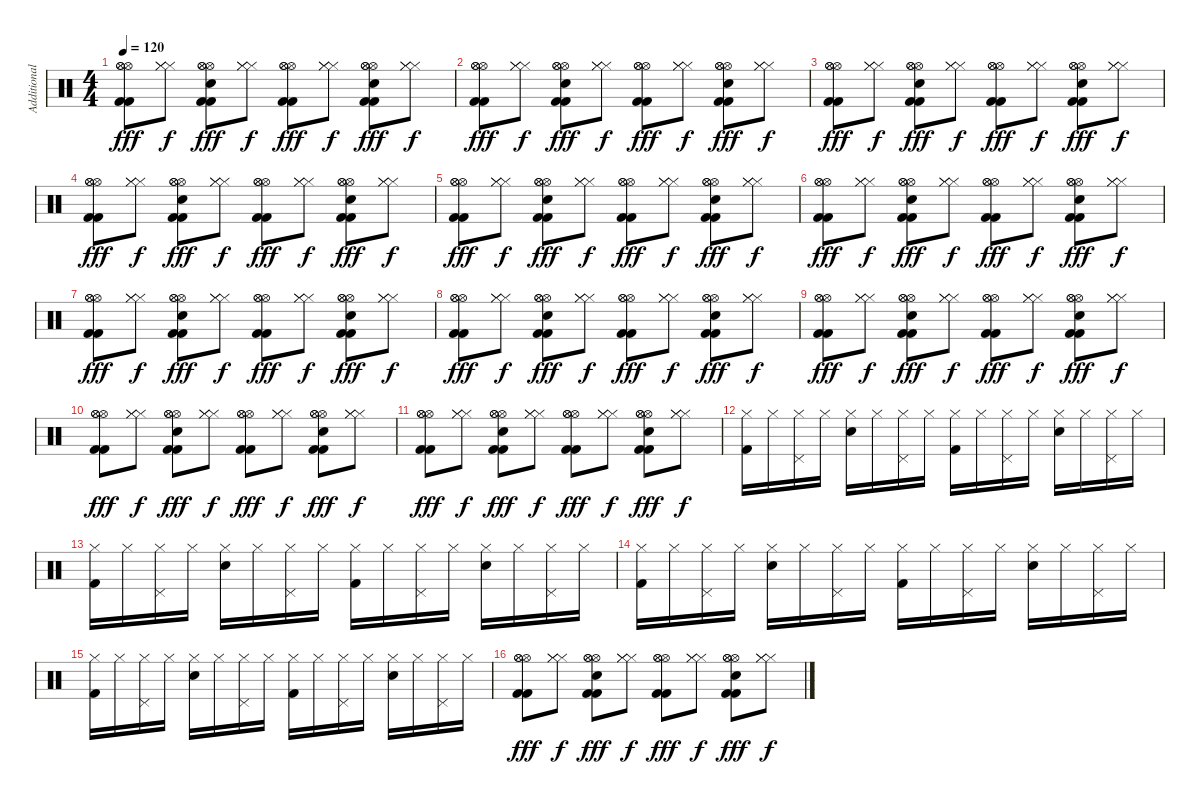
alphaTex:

\track ("Additional Rythm" "Additional") {instrument percussion}
\staff {score}
\articulation defaults
\ts (4 4)
\tempo 120
\clef neutral
\ks c
("Hi-Hat (open)" "Hi-Hat (open)" "Hi-Hat (open)" "Kick (hit) 2" "Kick (hit) 2").8{dy fff} ("Hi-Hat (closed)" "Hi-Hat (closed)" "Hi-Hat (closed)").8{dy f} ("Hi-Hat (open)" "Hi-Hat (open)" "Hi-Hat (open)" "Kick (hit) 2" "Kick (hit) 2" "Snare (hit) 2").8{dy fff} ("Hi-Hat (closed)" "Hi-Hat (closed)" "Hi-Hat (closed)").8{dy f} ("Hi-Hat (open)" "Hi-Hat (open)" "Hi-Hat (open)" "Kick (hit) 2" "Kick (hit) 2").8{dy fff} ("Hi-Hat (closed)" "Hi-Hat (closed)" "Hi-Hat (closed)").8{dy f} ("Hi-Hat (open)" "Hi-Hat (open)" "Hi-Hat (open)" "Kick (hit) 2" "Kick (hit) 2" "Snare (hit) 2").8{dy fff} ("Hi-Hat (closed)" "Hi-Hat (closed)" "Hi-Hat (closed)").8{dy f} |
("Hi-Hat (open)" "Hi-Hat (open)" "Hi-Hat (open)" "Kick (hit) 2" "Kick (hit) 2").8{dy fff} ("Hi-Hat (closed)" "Hi-Hat (closed)" "Hi-Hat (closed)").8{dy f} ("Hi-Hat (open)" "Hi-Hat (open)" "Hi-Hat (open)" "Kick (hit) 2" "Kick (hit) 2" "Snare (hit) 2").8{dy fff} ("Hi-Hat (closed)" "Hi-Hat (closed)" "Hi-Hat (closed)").8{dy f} ("Hi-Hat (open)" "Hi-Hat (open)" "Hi-Hat (open)" "Kick (hit) 2" "Kick (hit) 2").8{dy fff} ("Hi-Hat (closed)" "Hi-Hat (closed)" "Hi-Hat (closed)").8{dy f} ("Hi-Hat (open)" "Hi-Hat (open)" "Hi-Hat (open)" "Kick (hit) 2" "Kick (hit) 2" "Snare (hit) 2").8{dy fff} ("Hi-Hat (closed)" "Hi-Hat (closed)" "Hi-Hat (closed)").8{dy f} |
("Hi-Hat (open)" "Hi-Hat (open)" "Hi-Hat (open)" "Kick (hit) 2" "Kick (hit) 2").8{dy fff} ("Hi-Hat (closed)" "Hi-Hat (closed)" "Hi-Hat (closed)").8{dy f} ("Hi-Hat (open)" "Hi-Hat (open)" "Hi-Hat (open)" "Kick (hit) 2" "Kick (hit) 2" "Snare (hit) 2").8{dy fff} ("Hi-Hat (closed)" "Hi-Hat (closed)" "Hi-Hat (closed)").8{dy f} ("Hi-Hat (open)" "Hi-Hat (open)" "Hi-Hat (open)" "Kick (hit) 2" "Kick (hit) 2").8{dy fff} ("Hi-Hat (closed)" "Hi-Hat (closed)" "Hi-Hat (closed)").8{dy f} ("Hi-Hat (open)" "Hi-Hat (open)" "Hi-Hat (open)" "Kick (hit) 2" "Kick (hit) 2" "Snare (hit) 2").8{dy fff} ("Hi-Hat (closed)" "Hi-Hat (closed)" "Hi-Hat (closed)").8{dy f} |
("Hi-Hat (open)" "Hi-Hat (open)" "Hi-Hat (open)" "Kick (hit) 2" "Kick (hit) 2").8{dy fff} ("Hi-Hat (closed)" "Hi-Hat (closed)" "Hi-Hat (closed)").8{dy f} ("Hi-Hat (open)" "Hi-Hat (open)" "Hi-Hat (open)" "Kick (hit) 2" "Kick (hit) 2" "Snare (hit) 2").8{dy fff} ("Hi-Hat (closed)" "Hi-Hat (closed)" "Hi-Hat (closed)").8{dy f} ("Hi-Hat (open)" "Hi-Hat (open)" "Hi-Hat (open)" "Kick (hit) 2" "Kick (hit) 2").8{dy fff} ("Hi-Hat (closed)" "Hi-Hat (closed)" "Hi-Hat (closed)").8{dy f} ("Hi-Hat (open)" "Hi-Hat (open)" "Hi-Hat (open)" "Kick (hit) 2" "Kick (hit) 2" "Snare (hit) 2").8{dy fff} ("Hi-Hat (closed)" "Hi-Hat (closed)" "Hi-Hat (closed)").8{dy f} |
("Hi-Hat (open)" "Hi-Hat (open)" "Hi-Hat (open)" "Kick (hit) 2" "Kick (hit) 2").8{dy fff} ("Hi-Hat (closed)" "Hi-Hat (closed)" "Hi-Hat (closed)").8{dy f} ("Hi-Hat (open)" "Hi-Hat (open)" "Hi-Hat (open)" "Kick (hit) 2" "Kick (hit) 2" "Snare (hit) 2").8{dy fff} ("Hi-Hat (closed)" "Hi-Hat (closed)" "Hi-Hat (closed)").8{dy f} ("Hi-Hat (open)" "Hi-Hat (open)" "Hi-Hat (open)" "Kick (hit) 2" "Kick (hit) 2").8{dy fff} ("Hi-Hat (closed)" "Hi-Hat (closed)" "Hi-Hat (closed)").8{dy f} ("Hi-Hat (open)" "Hi-Hat (open)" "Hi-Hat (open)" "Kick (hit) 2" "Kick (hit) 2" "Snare (hit) 2").8{dy fff} ("Hi-Hat (closed)" "Hi-Hat (closed)" "Hi-Hat (closed)").8{dy f} |
("Hi-Hat (open)" "Hi-Hat (open)" "Hi-Hat (open)" "Kick (hit) 2" "Kick (hit) 2").8{dy fff} ("Hi-Hat (closed)" "Hi-Hat (closed)" "Hi-Hat (closed)").8{dy f} ("Hi-Hat (open)" "Hi-Hat (open)" "Hi-Hat (open)" "Kick (hit) 2" "Kick (hit) 2" "Snare (hit) 2").8{dy fff} ("Hi-Hat (closed)" "Hi-Hat (closed)" "Hi-Hat (closed)").8{dy f} ("Hi-Hat (open)" "Hi-Hat (open)" "Hi-Hat (open)" "Kick (hit) 2" "Kick (hit) 2").8{dy fff} ("Hi-Hat (closed)" "Hi-Hat (closed)" "Hi-Hat (closed)").8{dy f} ("Hi-Hat (open)" "Hi-Hat (open)" "Hi-Hat (open)" "Kick (hit) 2" "Kick (hit) 2" "Snare (hit) 2").8{dy fff} ("Hi-Hat (closed)" "Hi-Hat (closed)" "Hi-Hat (closed)").8{dy f} |
("Hi-Hat (open)" "Hi-Hat (open)" "Hi-Hat (open)" "Kick (hit) 2" "Kick (hit) 2").8{dy fff} ("Hi-Hat (closed)" "Hi-Hat (closed)" "Hi-Hat (closed)").8{dy f} ("Hi-Hat (open)" "Hi-Hat (open)" "Hi-Hat (open)" "Kick (hit) 2" "Kick (hit) 2" "Snare (hit) 2").8{dy fff} ("Hi-Hat (closed)" "Hi-Hat (closed)" "Hi-Hat (closed)").8{dy f} ("Hi-Hat (open)" "Hi-Hat (open)" "Hi-Hat (open)" "Kick (hit) 2" "Kick (hit) 2").8{dy fff} ("Hi-Hat (closed)" "Hi-Hat (closed)" "Hi-Hat (closed)").8{dy f} ("Hi-Hat (open)" "Hi-Hat (open)" "Hi-Hat (open)" "Kick (hit) 2" "Kick (hit) 2" "Snare (hit) 2").8{dy fff} ("Hi-Hat (closed)" "Hi-Hat (closed)" "Hi-Hat (closed)").8{dy f} |
("Hi-Hat (open)" "Hi-Hat (open)" "Hi-Hat (open)" "Kick (hit) 2" "Kick (hit) 2").8{dy fff} ("Hi-Hat (closed)" "Hi-Hat (closed)" "Hi-Hat (closed)").8{dy f} ("Hi-Hat (open)" "Hi-Hat (open)" "Hi-Hat (open)" "Kick (hit) 2" "Kick (hit) 2" "Snare (hit) 2").8{dy fff} ("Hi-Hat (closed)" "Hi-Hat (closed)" "Hi-Hat (closed)").8{dy f} ("Hi-Hat (open)" "Hi-Hat (open)" "Hi-Hat (open)" "Kick (hit) 2" "Kick (hit) 2").8{dy fff} ("Hi-Hat (closed)" "Hi-Hat (closed)" "Hi-Hat (closed)").8{dy f} ("Hi-Hat (open)" "Hi-Hat (open)" "Hi-Hat (open)" "Kick (hit) 2" "Kick (hit) 2" "Snare (hit) 2").8{dy fff} ("Hi-Hat (closed)" "Hi-Hat (closed)" "Hi-Hat (closed)").8{dy f} |
("Hi-Hat (open)" "Hi-Hat (open)" "Hi-Hat (open)" "Kick (hit) 2" "Kick (hit) 2").8{dy fff} ("Hi-Hat (closed)" "Hi-Hat (closed)" "Hi-Hat (closed)").8{dy f} ("Hi-Hat (open)" "Hi-Hat (open)" "Hi-Hat (open)" "Kick (hit) 2" "Kick (hit) 2" "Snare (hit) 2").8{dy fff} ("Hi-Hat (closed)" "Hi-Hat (closed)" "Hi-Hat (closed)").8{dy f} ("Hi-Hat (open)" "Hi-Hat (open)" "Hi-Hat (open)" "Kick (hit) 2" "Kick (hit) 2").8{dy fff} ("Hi-Hat (closed)" "Hi-Hat (closed)" "Hi-Hat (closed)").8{dy f} ("Hi-Hat (open)" "Hi-Hat (open)" "Hi-Hat (open)" "Kick (hit) 2" "Kick (hit) 2" "Snare (hit) 2").8{dy fff} ("Hi-Hat (closed)" "Hi-Hat (closed)" "Hi-Hat (closed)").8{dy f} |
("Hi-Hat (open)" "Hi-Hat (open)" "Hi-Hat (open)" "Kick (hit) 2" "Kick (hit) 2").8{dy fff} ("Hi-Hat (closed)" "Hi-Hat (closed)" "Hi-Hat (closed)").8{dy f} ("Hi-Hat (open)" "Hi-Hat (open)" "Hi-Hat (open)" "Kick (hit) 2" "Kick (hit) 2" "Snare (hit) 2").8{dy fff} ("Hi-Hat (closed)" "Hi-Hat (closed)" "Hi-Hat (closed)").8{dy f} ("Hi-Hat (open)" "Hi-Hat (open)" "Hi-Hat (open)" "Kick (hit) 2" "Kick (hit) 2").8{dy fff} ("Hi-Hat (closed)" "Hi-Hat (closed)" "Hi-Hat (closed)").8{dy f} ("Hi-Hat (open)" "Hi-Hat (open)" "Hi-Hat (open)" "Kick (hit) 2" "Kick (hit) 2" "Snare (hit) 2").8{dy fff} ("Hi-Hat (closed)" "Hi-Hat (closed)" "Hi-Hat (closed)").8{dy f} |
("Hi-Hat (open)" "Hi-Hat (open)" "Hi-Hat (open)" "Kick (hit) 2" "Kick (hit) 2").8{dy fff} ("Hi-Hat (closed)" "Hi-Hat (closed)" "Hi-Hat (closed)").8{dy f} ("Hi-Hat (open)" "Hi-Hat (open)" "Hi-Hat (open)" "Kick (hit) 2" "Kick (hit) 2" "Snare (hit) 2").8{dy fff} ("Hi-Hat (closed)" "Hi-Hat (closed)" "Hi-Hat (closed)").8{dy f} ("Hi-Hat (open)" "Hi-Hat (open)" "Hi-Hat (open)" "Kick (hit) 2" "Kick (hit) 2").8{dy fff} ("Hi-Hat (closed)" "Hi-Hat (closed)" "Hi-Hat (closed)").8{dy f} ("Hi-Hat (open)" "Hi-Hat (open)" "Hi-Hat (open)" "Kick (hit) 2" "Kick (hit) 2" "Snare (hit) 2").8{dy fff} ("Hi-Hat (closed)" "Hi-Hat (closed)" "Hi-Hat (closed)").8{dy f} |
("Hi-Hat (closed)" "Kick (hit) 2").16 "Hi-Hat (closed)".16 ("Hi-Hat (closed)" "Pedal Hi-Hat (hit)").16 "Hi-Hat (closed)".16 ("Hi-Hat (closed)" "Snare (hit) 2").16 "Hi-Hat (closed)".16 ("Hi-Hat (closed)" "Pedal Hi-Hat (hit)").16 "Hi-Hat (closed)".16 ("Hi-Hat (closed)" "Kick (hit) 2").16 "Hi-Hat (closed)".16 ("Hi-Hat (closed)" "Pedal Hi-Hat (hit)").16 "Hi-Hat (closed)".16 ("Hi-Hat (closed)" "Snare (hit) 2").16 "Hi-Hat (closed)".16 ("Hi-Hat (closed)" "Pedal Hi-Hat (hit)").16 "Hi-Hat (closed)".16 |
("Hi-Hat (closed)" "Kick (hit) 2").16 "Hi-Hat (closed)".16 ("Hi-Hat (closed)" "Pedal Hi-Hat (hit)").16 "Hi-Hat (closed)".16 ("Hi-Hat (closed)" "Snare (hit) 2").16 "Hi-Hat (closed)".16 ("Hi-Hat (closed)" "Pedal Hi-Hat (hit)").16 "Hi-Hat (closed)".16 ("Hi-Hat (closed)" "Kick (hit) 2").16 "Hi-Hat (closed)".16 ("Hi-Hat (closed)" "Pedal Hi-Hat (hit)").16 "Hi-Hat (closed)".16 ("Hi-Hat (closed)" "Snare (hit) 2").16 "Hi-Hat (closed)".16 ("Hi-Hat (closed)" "Pedal Hi-Hat (hit)").16 "Hi-Hat (closed)".16 |
("Hi-Hat (closed)" "Kick (hit) 2").16 "Hi-Hat (closed)".16 ("Hi-Hat (closed)" "Pedal Hi-Hat (hit)").16 "Hi-Hat (closed)".16 ("Hi-Hat (closed)" "Snare (hit) 2").16 "Hi-Hat (closed)".16 ("Hi-Hat (closed)" "Pedal Hi-Hat (hit)").16 "Hi-Hat (closed)".16 ("Hi-Hat (closed)" "Kick (hit) 2").16 "Hi-Hat (closed)".16 ("Hi-Hat (closed)" "Pedal Hi-Hat (hit)").16 "Hi-Hat (closed)".16 ("Hi-Hat (closed)" "Snare (hit) 2").16 "Hi-Hat (closed)".16 ("Hi-Hat (closed)" "Pedal Hi-Hat (hit)").16 "Hi-Hat (closed)".16 |
("Hi-Hat (closed)" "Kick (hit) 2").16 "Hi-Hat (closed)".16 ("Hi-Hat (closed)" "Pedal Hi-Hat (hit)").16 "Hi-Hat (closed)".16 ("Hi-Hat (closed)" "Snare (hit) 2").16 "Hi-Hat (closed)".16 ("Hi-Hat (closed)" "Pedal Hi-Hat (hit)").16 "Hi-Hat (closed)".16 ("Hi-Hat (closed)" "Kick (hit) 2").16 "Hi-Hat (closed)".16 ("Hi-Hat (closed)" "Pedal Hi-Hat (hit)").16 "Hi-Hat (closed)".16 ("Hi-Hat (closed)" "Snare (hit) 2").16 "Hi-Hat (closed)".16 ("Hi-Hat (closed)" "Pedal Hi-Hat (hit)").16 "Hi-Hat (closed)".16 |
("Hi-Hat (open)" "Hi-Hat (open)" "Hi-Hat (open)" "Kick (hit) 2" "Kick (hit) 2").8{dy fff} ("Hi-Hat (closed)" "Hi-Hat (closed)" "Hi-Hat (closed)").8{dy f} ("Hi-Hat (open)" "Hi-Hat (open)" "Hi-Hat (open)" "Kick (hit) 2" "Kick (hit) 2" "Snare (hit) 2").8{dy fff} ("Hi-Hat (closed)" "Hi-Hat (closed)" "Hi-Hat (closed)").8{dy f} ("Hi-Hat (open)" "Hi-Hat (open)" "Hi-Hat (open)" "Kick (hit) 2" "Kick (hit) 2").8{dy fff} ("Hi-Hat (closed)" "Hi-Hat (closed)" "Hi-Hat (closed)").8{dy f} ("Hi-Hat (open)" "Hi-Hat (open)" "Hi-Hat (open)" "Kick (hit) 2" "Kick (hit) 2" "Snare (hit) 2").8{dy fff} ("Hi-Hat (closed)" "Hi-Hat (closed)" "Hi-Hat (closed)").8{dy f}
